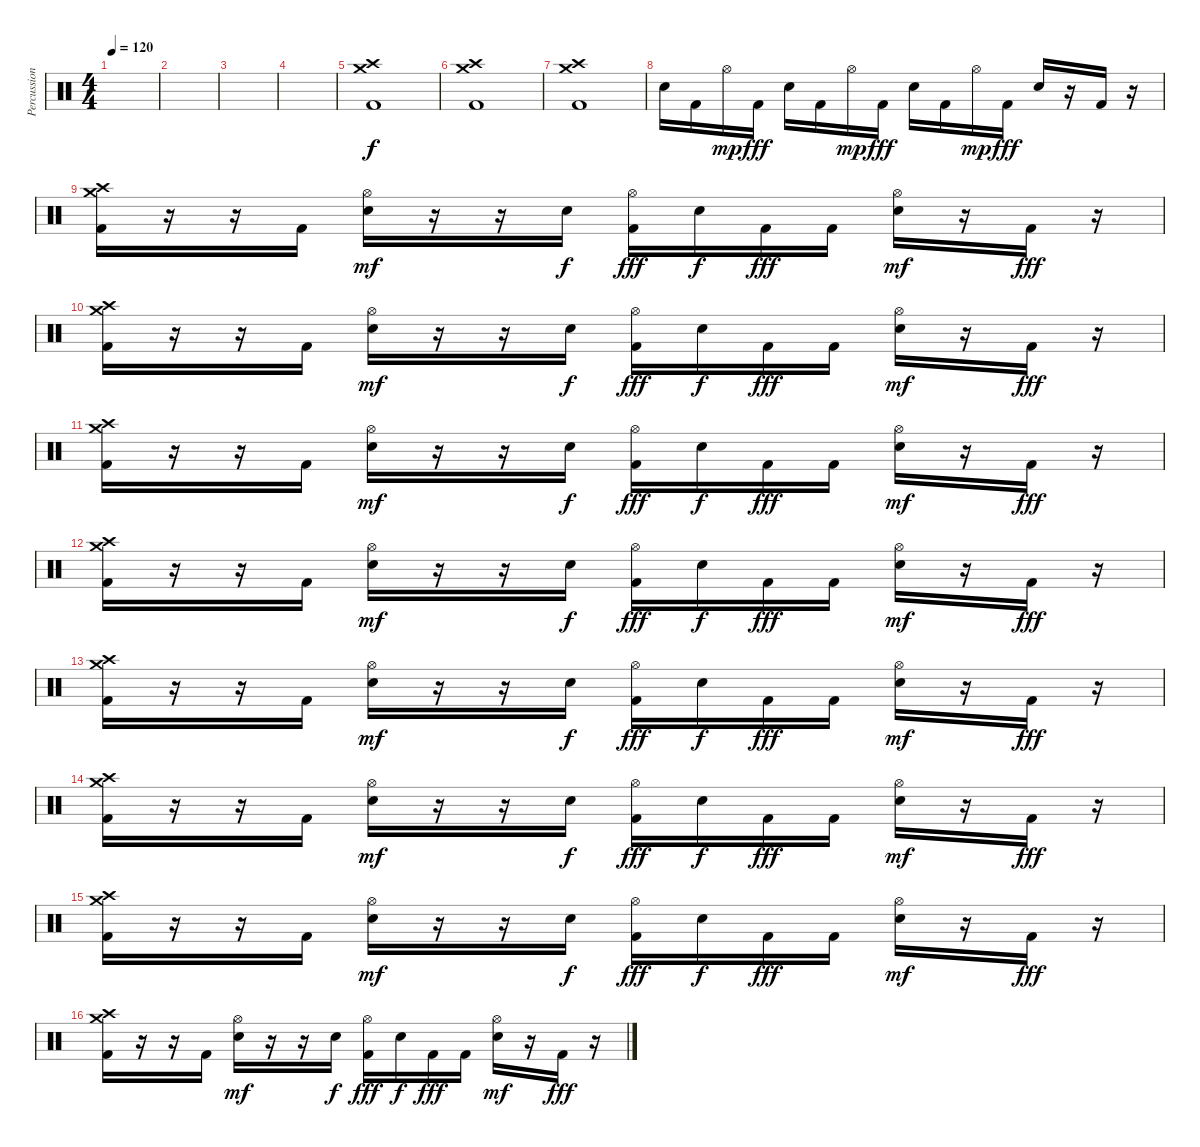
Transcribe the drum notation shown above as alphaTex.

\track ("Percussion" "Percussion") {instrument percussion}
\staff {score}
\articulation defaults
\ts (4 4)
\tempo 120
\clef neutral
\ks c
|
|
|
|
("Crash high (hit)" "Crash medium (hit)" "Kick (hit) 2").1 |
("Crash high (hit)" "Crash medium (hit)" "Kick (hit) 2").1 |
("Crash high (hit)" "Crash medium (hit)" "Kick (hit) 2").1 |
"Snare (hit) 2".16 "Kick (hit) 2".16 "Hi-Hat (open)".16{dy mp} "Kick (hit) 2".16{dy fff} "Snare (hit) 2".16 "Kick (hit) 2".16 "Hi-Hat (open)".16{dy mp} "Kick (hit) 2".16{dy fff} "Snare (hit) 2".16 "Kick (hit) 2".16 "Hi-Hat (open)".16{dy mp} "Kick (hit) 2".16{dy fff} "Snare (hit) 2".16 r.16 "Kick (hit) 2".16 r.16 |
("Crash medium (hit)" "Crash high (hit)" "Kick (hit) 2").16 r.16 r.16 "Kick (hit) 2".16 ("Hi-Hat (open)" "Snare (hit) 2").16{dy mf} r.16 r.16 "Snare (hit) 2".16{dy f} ("Hi-Hat (open)" "Kick (hit) 2").16{dy fff} "Snare (hit) 2".16{dy f} "Kick (hit) 2".16{dy fff} "Kick (hit) 2".16 ("Hi-Hat (open)" "Snare (hit) 2").16{dy mf} r.16 "Kick (hit) 2".16{dy fff} r.16 |
("Crash medium (hit)" "Crash high (hit)" "Kick (hit) 2").16 r.16 r.16 "Kick (hit) 2".16 ("Hi-Hat (open)" "Snare (hit) 2").16{dy mf} r.16 r.16 "Snare (hit) 2".16{dy f} ("Hi-Hat (open)" "Kick (hit) 2").16{dy fff} "Snare (hit) 2".16{dy f} "Kick (hit) 2".16{dy fff} "Kick (hit) 2".16 ("Hi-Hat (open)" "Snare (hit) 2").16{dy mf} r.16 "Kick (hit) 2".16{dy fff} r.16 |
("Crash medium (hit)" "Crash high (hit)" "Kick (hit) 2").16 r.16 r.16 "Kick (hit) 2".16 ("Hi-Hat (open)" "Snare (hit) 2").16{dy mf} r.16 r.16 "Snare (hit) 2".16{dy f} ("Hi-Hat (open)" "Kick (hit) 2").16{dy fff} "Snare (hit) 2".16{dy f} "Kick (hit) 2".16{dy fff} "Kick (hit) 2".16 ("Hi-Hat (open)" "Snare (hit) 2").16{dy mf} r.16 "Kick (hit) 2".16{dy fff} r.16 |
("Crash medium (hit)" "Crash high (hit)" "Kick (hit) 2").16 r.16 r.16 "Kick (hit) 2".16 ("Hi-Hat (open)" "Snare (hit) 2").16{dy mf} r.16 r.16 "Snare (hit) 2".16{dy f} ("Hi-Hat (open)" "Kick (hit) 2").16{dy fff} "Snare (hit) 2".16{dy f} "Kick (hit) 2".16{dy fff} "Kick (hit) 2".16 ("Hi-Hat (open)" "Snare (hit) 2").16{dy mf} r.16 "Kick (hit) 2".16{dy fff} r.16 |
("Crash medium (hit)" "Crash high (hit)" "Kick (hit) 2").16 r.16 r.16 "Kick (hit) 2".16 ("Hi-Hat (open)" "Snare (hit) 2").16{dy mf} r.16 r.16 "Snare (hit) 2".16{dy f} ("Hi-Hat (open)" "Kick (hit) 2").16{dy fff} "Snare (hit) 2".16{dy f} "Kick (hit) 2".16{dy fff} "Kick (hit) 2".16 ("Hi-Hat (open)" "Snare (hit) 2").16{dy mf} r.16 "Kick (hit) 2".16{dy fff} r.16 |
("Crash medium (hit)" "Crash high (hit)" "Kick (hit) 2").16 r.16 r.16 "Kick (hit) 2".16 ("Hi-Hat (open)" "Snare (hit) 2").16{dy mf} r.16 r.16 "Snare (hit) 2".16{dy f} ("Hi-Hat (open)" "Kick (hit) 2").16{dy fff} "Snare (hit) 2".16{dy f} "Kick (hit) 2".16{dy fff} "Kick (hit) 2".16 ("Hi-Hat (open)" "Snare (hit) 2").16{dy mf} r.16 "Kick (hit) 2".16{dy fff} r.16 |
("Crash medium (hit)" "Crash high (hit)" "Kick (hit) 2").16 r.16 r.16 "Kick (hit) 2".16 ("Hi-Hat (open)" "Snare (hit) 2").16{dy mf} r.16 r.16 "Snare (hit) 2".16{dy f} ("Hi-Hat (open)" "Kick (hit) 2").16{dy fff} "Snare (hit) 2".16{dy f} "Kick (hit) 2".16{dy fff} "Kick (hit) 2".16 ("Hi-Hat (open)" "Snare (hit) 2").16{dy mf} r.16 "Kick (hit) 2".16{dy fff} r.16 |
("Crash medium (hit)" "Crash high (hit)" "Kick (hit) 2").16 r.16 r.16 "Kick (hit) 2".16 ("Hi-Hat (open)" "Snare (hit) 2").16{dy mf} r.16 r.16 "Snare (hit) 2".16{dy f} ("Hi-Hat (open)" "Kick (hit) 2").16{dy fff} "Snare (hit) 2".16{dy f} "Kick (hit) 2".16{dy fff} "Kick (hit) 2".16 ("Hi-Hat (open)" "Snare (hit) 2").16{dy mf} r.16 "Kick (hit) 2".16{dy fff} r.16
